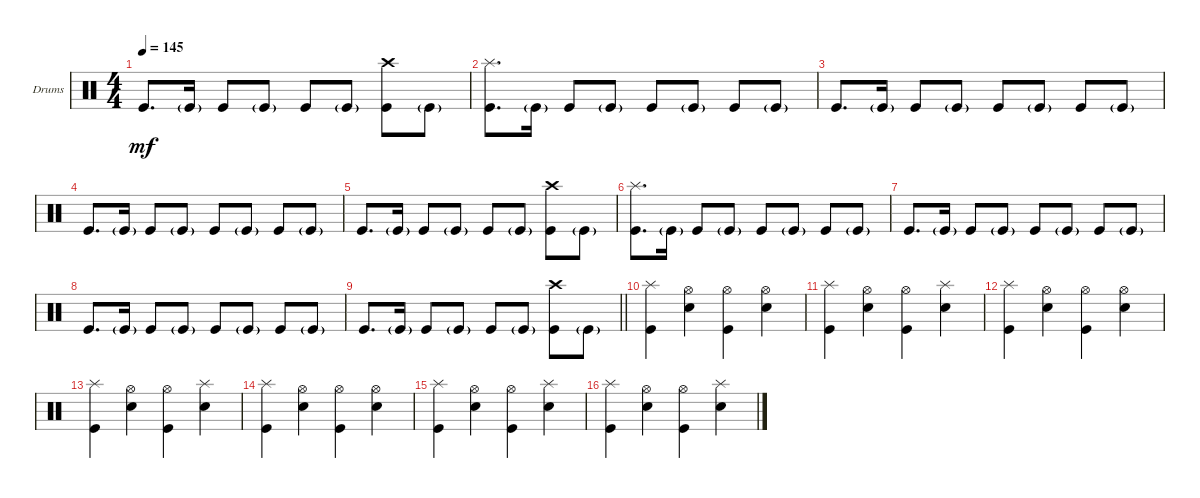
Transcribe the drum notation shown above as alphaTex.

\bracketExtendMode groupsimilarinstruments
\firstSystemTrackNameOrientation horizontal
\otherSystemsTrackNameOrientation horizontal
\track ("Drums" "Drums") {instrument percussion}
\staff {score}
\articulation defaults
\ts (4 4)
\tempo 145
\clef neutral
\ks c "Kick (hit)".8{d dy mf} "Kick (hit)"{g}.16 "Kick (hit)".8 "Kick (hit)"{g}.8 "Kick (hit)".8 "Kick (hit)"{g}.8
("Kick (hit)" "Crash high (hit)").8 "Kick (hit)"{g}.8 |
("Kick (hit)" "Splash (hit)").8{d} "Kick (hit)"{g}.16 "Kick (hit)".8 "Kick (hit)"{g}.8 "Kick (hit)".8 "Kick (hit)"{g}.8 "Kick (hit)".8 "Kick (hit)"{g}.8 |
"Kick (hit)".8{d} "Kick (hit)"{g}.16 "Kick (hit)".8 "Kick (hit)"{g}.8 "Kick (hit)".8 "Kick (hit)"{g}.8 "Kick (hit)".8 "Kick (hit)"{g}.8 |
"Kick (hit)".8{d} "Kick (hit)"{g}.16 "Kick (hit)".8 "Kick (hit)"{g}.8 "Kick (hit)".8 "Kick (hit)"{g}.8 "Kick (hit)".8 "Kick (hit)"{g}.8 |
"Kick (hit)".8{d} "Kick (hit)"{g}.16 "Kick (hit)".8 "Kick (hit)"{g}.8 "Kick (hit)".8 "Kick (hit)"{g}.8 ("Kick (hit)" "Crash high (hit)").8 "Kick (hit)"{g}.8 |
("Kick (hit)" "Splash (hit)").8{d} "Kick (hit)"{g}.16 "Kick (hit)".8 "Kick (hit)"{g}.8 "Kick (hit)".8 "Kick (hit)"{g}.8 "Kick (hit)".8 "Kick (hit)"{g}.8 |
"Kick (hit)".8{d} "Kick (hit)"{g}.16 "Kick (hit)".8 "Kick (hit)"{g}.8 "Kick (hit)".8 "Kick (hit)"{g}.8 "Kick (hit)".8 "Kick (hit)"{g}.8 |
"Kick (hit)".8{d} "Kick (hit)"{g}.16 "Kick (hit)".8 "Kick (hit)"{g}.8 "Kick (hit)".8 "Kick (hit)"{g}.8 "Kick (hit)".8 "Kick (hit)"{g}.8 |
\barLineRight lightlight "Kick (hit)".8{d} "Kick (hit)"{g}.16 "Kick (hit)".8 "Kick (hit)"{g}.8 "Kick (hit)".8 "Kick (hit)"{g}.8
("Kick (hit)" "Crash high (hit)").8 "Kick (hit)"{g}.8 |
("Kick (hit)" "Splash (hit)").4 ("Snare (hit) 2" "Hi-Hat (open)").4 ("Kick (hit)" "Hi-Hat (open)").4 ("Snare (hit) 2" "Hi-Hat (open)").4 |
("Kick (hit)" "Splash (hit)").4 ("Snare (hit) 2" "Hi-Hat (open)").4 ("Kick (hit)" "Hi-Hat (open)").4 ("Snare (hit) 2" "Splash (hit)").4 |
("Kick (hit)" "Splash (hit)").4 ("Snare (hit) 2" "Hi-Hat (open)").4 ("Kick (hit)" "Hi-Hat (open)").4 ("Snare (hit) 2" "Hi-Hat (open)").4 |
("Kick (hit)" "Splash (hit)").4 ("Snare (hit) 2" "Hi-Hat (open)").4 ("Kick (hit)" "Hi-Hat (open)").4 ("Snare (hit) 2" "Splash (hit)").4 |
("Kick (hit)" "Splash (hit)").4 ("Snare (hit) 2" "Hi-Hat (open)").4 ("Kick (hit)" "Hi-Hat (open)").4 ("Snare (hit) 2" "Hi-Hat (open)").4 |
("Kick (hit)" "Splash (hit)").4 ("Snare (hit) 2" "Hi-Hat (open)").4 ("Kick (hit)" "Hi-Hat (open)").4 ("Snare (hit) 2" "Splash (hit)").4 |
("Kick (hit)" "Splash (hit)").4 ("Snare (hit) 2" "Hi-Hat (open)").4 ("Kick (hit)" "Hi-Hat (open)").4 ("Snare (hit) 2" "Splash (hit)").4
